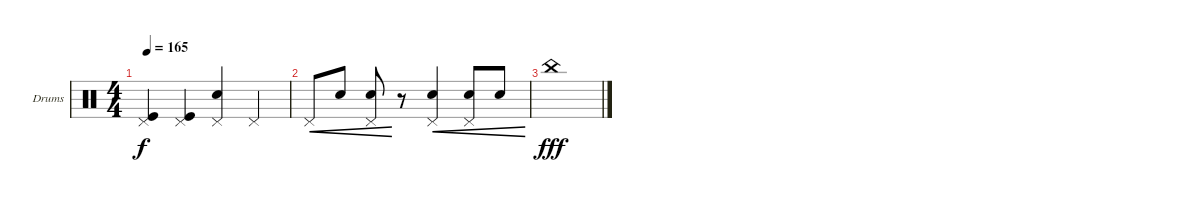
\bracketExtendMode groupsimilarinstruments
\firstSystemTrackNameOrientation horizontal
\otherSystemsTrackNameOrientation horizontal
\track ("Drumkit" "Drums") {instrument percussion}
\staff {score}
\articulation defaults
\ts (4 4)
\tempo 165
\clef neutral
\ks c
("Pedal Hi-Hat (hit)" "Kick (hit)").4{dy f} ("Pedal Hi-Hat (hit)" "Kick (hit)").4 ("Pedal Hi-Hat (hit)" "Snare (hit) 2").4 "Pedal Hi-Hat (hit)".4 |
"Pedal Hi-Hat (hit)".8{cre} "Snare (hit) 2".8{cre} ("Pedal Hi-Hat (hit)" "Snare (hit) 2").8{cre} r.8 ("Snare (hit) 2" "Pedal Hi-Hat (hit)").4{cre} ("Snare (hit) 2" "Pedal Hi-Hat (hit)").8{cre} "Snare (hit) 2".8{cre} |
"China (hit)".1{dy fff}
